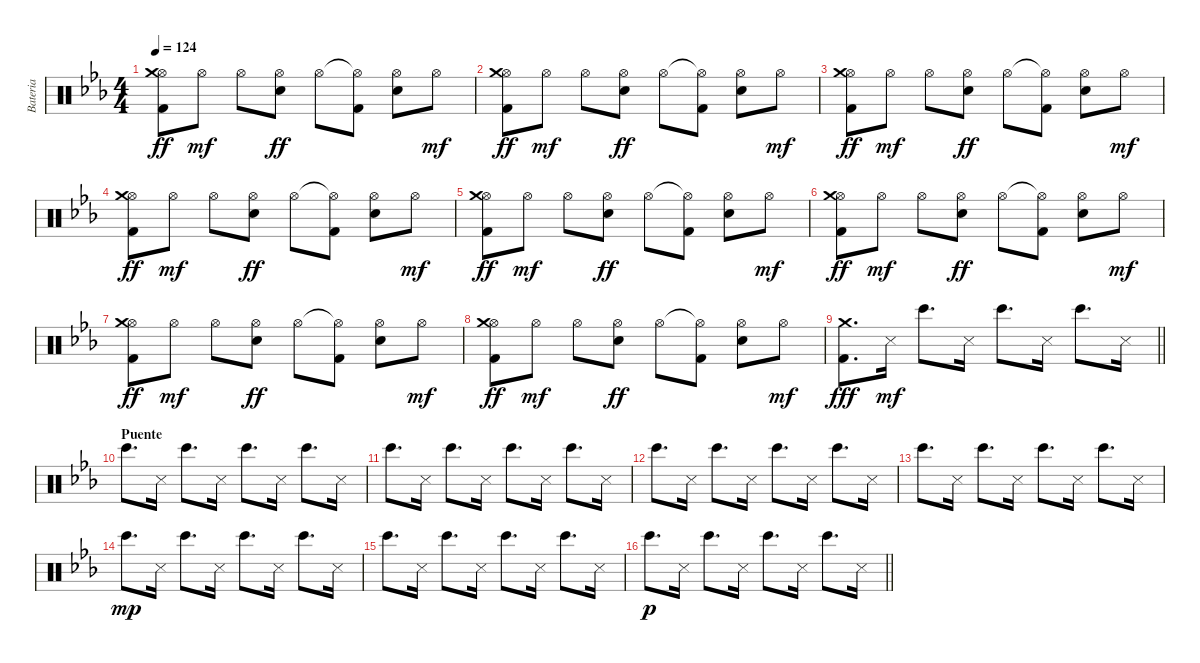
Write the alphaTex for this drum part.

\track ("Bateria" "Bateria") {instrument percussion}
\staff {score}
\articulation defaults
\ts (4 4)
\tempo 124
\clef neutral
\ks eb
("Hi-Hat (open)" "Kick (hit) 2" "Crash medium (hit)").8{dy ff} "Hi-Hat (open)".8{dy mf} "Hi-Hat (open)".8 ("Hi-Hat (open)" "Electric Snare (hit)").8{dy ff} "Hi-Hat (open)".8 ("Hi-Hat (open)"{t} "Kick (hit) 2").8 ("Hi-Hat (open)" "Electric Snare (hit)").8 "Hi-Hat (open)".8{dy mf} |
("Hi-Hat (open)" "Kick (hit) 2" "Crash medium (hit)").8{dy ff} "Hi-Hat (open)".8{dy mf} "Hi-Hat (open)".8 ("Hi-Hat (open)" "Electric Snare (hit)").8{dy ff} "Hi-Hat (open)".8 ("Hi-Hat (open)"{t} "Kick (hit) 2").8 ("Hi-Hat (open)" "Electric Snare (hit)").8 "Hi-Hat (open)".8{dy mf} |
("Hi-Hat (open)" "Kick (hit) 2" "Crash medium (hit)").8{dy ff} "Hi-Hat (open)".8{dy mf} "Hi-Hat (open)".8 ("Hi-Hat (open)" "Electric Snare (hit)").8{dy ff} "Hi-Hat (open)".8 ("Hi-Hat (open)"{t} "Kick (hit) 2").8 ("Hi-Hat (open)" "Electric Snare (hit)").8 "Hi-Hat (open)".8{dy mf} |
("Hi-Hat (open)" "Kick (hit) 2" "Crash medium (hit)").8{dy ff} "Hi-Hat (open)".8{dy mf} "Hi-Hat (open)".8 ("Hi-Hat (open)" "Electric Snare (hit)").8{dy ff} "Hi-Hat (open)".8 ("Hi-Hat (open)"{t} "Kick (hit) 2").8 ("Hi-Hat (open)" "Electric Snare (hit)").8 "Hi-Hat (open)".8{dy mf} |
("Hi-Hat (open)" "Kick (hit) 2" "Crash medium (hit)").8{dy ff} "Hi-Hat (open)".8{dy mf} "Hi-Hat (open)".8 ("Hi-Hat (open)" "Electric Snare (hit)").8{dy ff} "Hi-Hat (open)".8 ("Hi-Hat (open)"{t} "Kick (hit) 2").8 ("Hi-Hat (open)" "Electric Snare (hit)").8 "Hi-Hat (open)".8{dy mf} |
("Hi-Hat (open)" "Kick (hit) 2" "Crash medium (hit)").8{dy ff} "Hi-Hat (open)".8{dy mf} "Hi-Hat (open)".8 ("Hi-Hat (open)" "Electric Snare (hit)").8{dy ff} "Hi-Hat (open)".8 ("Hi-Hat (open)"{t} "Kick (hit) 2").8 ("Hi-Hat (open)" "Electric Snare (hit)").8 "Hi-Hat (open)".8{dy mf} |
("Hi-Hat (open)" "Kick (hit) 2" "Crash medium (hit)").8{dy ff} "Hi-Hat (open)".8{dy mf} "Hi-Hat (open)".8 ("Hi-Hat (open)" "Electric Snare (hit)").8{dy ff} "Hi-Hat (open)".8 ("Hi-Hat (open)"{t} "Kick (hit) 2").8 ("Hi-Hat (open)" "Electric Snare (hit)").8 "Hi-Hat (open)".8{dy mf} |
("Hi-Hat (open)" "Kick (hit) 2" "Crash medium (hit)").8{dy ff} "Hi-Hat (open)".8{dy mf} "Hi-Hat (open)".8 ("Hi-Hat (open)" "Electric Snare (hit)").8{dy ff} "Hi-Hat (open)".8 ("Hi-Hat (open)"{t} "Kick (hit) 2").8 ("Hi-Hat (open)" "Electric Snare (hit)").8 "Hi-Hat (open)".8{dy mf} |
\barLineRight lightlight
("Kick (hit) 2" "Crash medium (hit)").8{d dy fff} "Metronome (hit)".16{dy mf} "Bongo High (hit)".8{d} "Metronome (hit)".16 "Bongo High (hit)".8{d} "Metronome (hit)".16 "Bongo High (hit)".8{d} "Metronome (hit)".16 |
\section ("" "Puente")
"Bongo High (hit)".8{d} "Metronome (hit)".16 "Bongo High (hit)".8{d} "Metronome (hit)".16 "Bongo High (hit)".8{d} "Metronome (hit)".16 "Bongo High (hit)".8{d} "Metronome (hit)".16 |
"Bongo High (hit)".8{d} "Metronome (hit)".16 "Bongo High (hit)".8{d} "Metronome (hit)".16 "Bongo High (hit)".8{d} "Metronome (hit)".16 "Bongo High (hit)".8{d} "Metronome (hit)".16 |
"Bongo High (hit)".8{d} "Metronome (hit)".16 "Bongo High (hit)".8{d} "Metronome (hit)".16 "Bongo High (hit)".8{d} "Metronome (hit)".16 "Bongo High (hit)".8{d} "Metronome (hit)".16 |
"Bongo High (hit)".8{d} "Metronome (hit)".16 "Bongo High (hit)".8{d} "Metronome (hit)".16 "Bongo High (hit)".8{d} "Metronome (hit)".16 "Bongo High (hit)".8{d} "Metronome (hit)".16 |
"Bongo High (hit)".8{d dy mp} "Metronome (hit)".16 "Bongo High (hit)".8{d} "Metronome (hit)".16 "Bongo High (hit)".8{d} "Metronome (hit)".16 "Bongo High (hit)".8{d} "Metronome (hit)".16 |
"Bongo High (hit)".8{d} "Metronome (hit)".16 "Bongo High (hit)".8{d} "Metronome (hit)".16 "Bongo High (hit)".8{d} "Metronome (hit)".16 "Bongo High (hit)".8{d} "Metronome (hit)".16 |
\barLineRight lightlight "Bongo High (hit)".8{d dy p} "Metronome (hit)".16 "Bongo High (hit)".8{d} "Metronome (hit)".16 "Bongo High (hit)".8{d} "Metronome (hit)".16 "Bongo High (hit)".8{d} "Metronome (hit)".16
